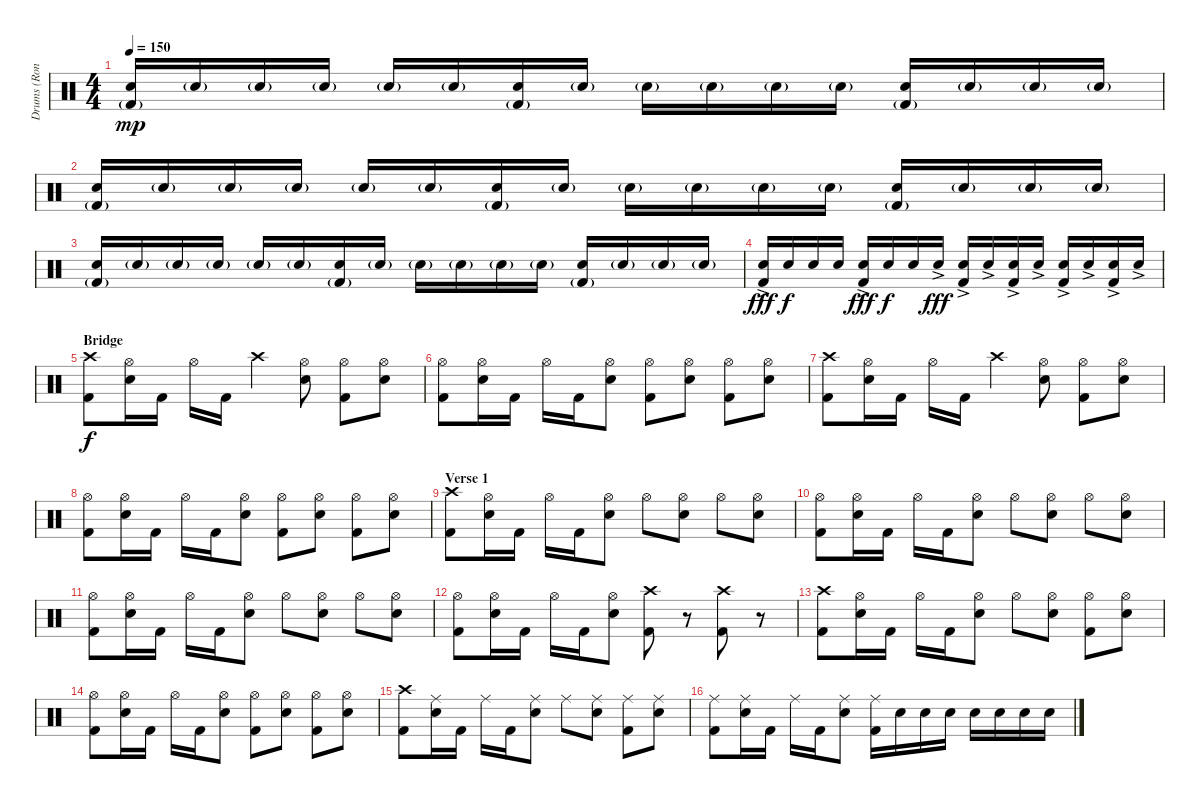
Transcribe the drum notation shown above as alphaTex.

\track ("Drums (Ron Welty)" "Drums (Ron") {instrument percussion}
\staff {score}
\articulation defaults
\ts (4 4)
\tempo 150
\clef neutral
\ks c
("Electric Snare (hit)" "Kick (hit) 2"{g}).16{dy mp} "Electric Snare (hit)"{g}.16 "Electric Snare (hit)"{g}.16 "Electric Snare (hit)"{g}.16 "Electric Snare (hit)"{g}.16 "Electric Snare (hit)"{g}.16 ("Electric Snare (hit)" "Kick (hit) 2"{g}).16 "Electric Snare (hit)"{g}.16 "Electric Snare (hit)"{g}.16 "Electric Snare (hit)"{g}.16 "Electric Snare (hit)"{g}.16 "Electric Snare (hit)"{g}.16 ("Electric Snare (hit)" "Kick (hit) 2"{g}).16 "Electric Snare (hit)"{g}.16 "Electric Snare (hit)"{g}.16 "Electric Snare (hit)"{g}.16 |
("Electric Snare (hit)" "Kick (hit) 2"{g}).16 "Electric Snare (hit)"{g}.16 "Electric Snare (hit)"{g}.16 "Electric Snare (hit)"{g}.16 "Electric Snare (hit)"{g}.16 "Electric Snare (hit)"{g}.16 ("Electric Snare (hit)" "Kick (hit) 2"{g}).16 "Electric Snare (hit)"{g}.16 "Electric Snare (hit)"{g}.16 "Electric Snare (hit)"{g}.16 "Electric Snare (hit)"{g}.16 "Electric Snare (hit)"{g}.16 ("Electric Snare (hit)" "Kick (hit) 2"{g}).16 "Electric Snare (hit)"{g}.16 "Electric Snare (hit)"{g}.16 "Electric Snare (hit)"{g}.16 |
("Electric Snare (hit)" "Kick (hit) 2"{g}).16 "Electric Snare (hit)"{g}.16 "Electric Snare (hit)"{g}.16 "Electric Snare (hit)"{g}.16 "Electric Snare (hit)"{g}.16 "Electric Snare (hit)"{g}.16 ("Electric Snare (hit)" "Kick (hit) 2"{g}).16 "Electric Snare (hit)"{g}.16 "Electric Snare (hit)"{g}.16 "Electric Snare (hit)"{g}.16 "Electric Snare (hit)"{g}.16 "Electric Snare (hit)"{g}.16 ("Electric Snare (hit)" "Kick (hit) 2"{g}).16 "Electric Snare (hit)"{g}.16 "Electric Snare (hit)"{g}.16 "Electric Snare (hit)"{g}.16 |
("Electric Snare (hit)"{ac} "Kick (hit) 2").16{dy fff} "Electric Snare (hit)".16{dy f} "Electric Snare (hit)".16 "Electric Snare (hit)".16 ("Electric Snare (hit)"{ac} "Kick (hit) 2").16{dy fff} "Electric Snare (hit)".16{dy f} "Electric Snare (hit)".16 "Electric Snare (hit)"{ac}.16{dy fff} ("Electric Snare (hit)"{ac} "Kick (hit) 2").16 "Electric Snare (hit)"{ac}.16 ("Electric Snare (hit)"{ac} "Kick (hit) 2").16 "Electric Snare (hit)"{ac}.16 ("Electric Snare (hit)"{ac} "Kick (hit) 2").16 "Electric Snare (hit)"{ac}.16 ("Electric Snare (hit)"{ac} "Kick (hit) 2").16 "Electric Snare (hit)"{ac}.16 |
\section ("" "Bridge")
("Crash high (hit)" "Kick (hit) 2").8{dy f} ("Hi-Hat (open)" "Electric Snare (hit)").16 "Kick (hit) 2".16 "Hi-Hat (open)".16 "Kick (hit) 2".16 "Crash high (hit)".4 ("Hi-Hat (open)" "Electric Snare (hit)").8 ("Hi-Hat (open)" "Kick (hit) 2").8 ("Hi-Hat (open)" "Electric Snare (hit)").8 |
("Hi-Hat (open)" "Kick (hit) 2").8 ("Hi-Hat (open)" "Electric Snare (hit)").16 "Kick (hit) 2".16 "Hi-Hat (open)".16 "Kick (hit) 2".16 ("Hi-Hat (open)" "Electric Snare (hit)").8 ("Hi-Hat (open)" "Kick (hit) 2").8 ("Hi-Hat (open)" "Electric Snare (hit)").8 ("Hi-Hat (open)" "Kick (hit) 2").8 ("Hi-Hat (open)" "Electric Snare (hit)").8 |
("Crash high (hit)" "Kick (hit) 2").8 ("Hi-Hat (open)" "Electric Snare (hit)").16 "Kick (hit) 2".16 "Hi-Hat (open)".16 "Kick (hit) 2".16 "Crash high (hit)".4 ("Hi-Hat (open)" "Electric Snare (hit)").8 ("Hi-Hat (open)" "Kick (hit) 2").8 ("Hi-Hat (open)" "Electric Snare (hit)").8 |
("Hi-Hat (open)" "Kick (hit) 2").8 ("Hi-Hat (open)" "Electric Snare (hit)").16 "Kick (hit) 2".16 "Hi-Hat (open)".16 "Kick (hit) 2".16 ("Hi-Hat (open)" "Electric Snare (hit)").8 ("Hi-Hat (open)" "Kick (hit) 2").8 ("Hi-Hat (open)" "Electric Snare (hit)").8 ("Hi-Hat (open)" "Kick (hit) 2").8 ("Hi-Hat (open)" "Electric Snare (hit)").8 |
\section ("" "Verse 1")
("Crash high (hit)" "Kick (hit) 2").8 ("Hi-Hat (open)" "Electric Snare (hit)").16 "Kick (hit) 2".16 "Hi-Hat (open)".16 "Kick (hit) 2".16 ("Hi-Hat (open)" "Electric Snare (hit)").8 "Hi-Hat (open)".8 ("Hi-Hat (open)" "Electric Snare (hit)").8 "Hi-Hat (open)".8 ("Hi-Hat (open)" "Electric Snare (hit)").8 |
("Hi-Hat (open)" "Kick (hit) 2").8 ("Hi-Hat (open)" "Electric Snare (hit)").16 "Kick (hit) 2".16 "Hi-Hat (open)".16 "Kick (hit) 2".16 ("Hi-Hat (open)" "Electric Snare (hit)").8 "Hi-Hat (open)".8 ("Hi-Hat (open)" "Electric Snare (hit)").8 "Hi-Hat (open)".8 ("Hi-Hat (open)" "Electric Snare (hit)").8 |
("Hi-Hat (open)" "Kick (hit) 2").8 ("Hi-Hat (open)" "Electric Snare (hit)").16 "Kick (hit) 2".16 "Hi-Hat (open)".16 "Kick (hit) 2".16 ("Hi-Hat (open)" "Electric Snare (hit)").8 "Hi-Hat (open)".8 ("Hi-Hat (open)" "Electric Snare (hit)").8 "Hi-Hat (open)".8 ("Hi-Hat (open)" "Electric Snare (hit)").8 |
("Hi-Hat (open)" "Kick (hit) 2").8 ("Hi-Hat (open)" "Electric Snare (hit)").16 "Kick (hit) 2".16 "Hi-Hat (open)".16 "Kick (hit) 2".16 ("Hi-Hat (open)" "Electric Snare (hit)").8 ("Crash high (hit)" "Kick (hit) 2").8 r.8 ("Crash high (hit)" "Kick (hit) 2").8 r.8 |
("Crash high (hit)" "Kick (hit) 2").8 ("Hi-Hat (open)" "Electric Snare (hit)").16 "Kick (hit) 2".16 "Hi-Hat (open)".16 "Kick (hit) 2".16 ("Hi-Hat (open)" "Electric Snare (hit)").8 "Hi-Hat (open)".8 ("Hi-Hat (open)" "Electric Snare (hit)").8 ("Hi-Hat (open)" "Kick (hit) 2").8 ("Hi-Hat (open)" "Electric Snare (hit)").8 |
("Hi-Hat (open)" "Kick (hit) 2").8 ("Hi-Hat (open)" "Electric Snare (hit)").16 "Kick (hit) 2".16 "Hi-Hat (open)".16 "Kick (hit) 2".16 ("Hi-Hat (open)" "Electric Snare (hit)").8 ("Hi-Hat (open)" "Kick (hit) 2").8 ("Hi-Hat (open)" "Electric Snare (hit)").8 ("Hi-Hat (open)" "Kick (hit) 2").8 ("Hi-Hat (open)" "Electric Snare (hit)").8 |
("Crash high (hit)" "Kick (hit) 2").8 ("Ride (middle)" "Electric Snare (hit)").16 "Kick (hit) 2".16 "Ride (middle)".16 "Kick (hit) 2".16 ("Ride (middle)" "Electric Snare (hit)").8 "Ride (middle)".8 ("Ride (middle)" "Electric Snare (hit)").8 ("Ride (middle)" "Kick (hit) 2").8 ("Ride (middle)" "Electric Snare (hit)").8 |
("Ride (middle)" "Kick (hit) 2").8 ("Ride (middle)" "Electric Snare (hit)").16 "Kick (hit) 2".16 "Ride (middle)".16 "Kick (hit) 2".16 ("Ride (middle)" "Electric Snare (hit)").8 ("Ride (middle)" "Kick (hit) 2").16 "Electric Snare (hit)".16 "Electric Snare (hit)".16 "Electric Snare (hit)".16 "Electric Snare (hit)".16 "Electric Snare (hit)".16 "Electric Snare (hit)".16 "Electric Snare (hit)".16
